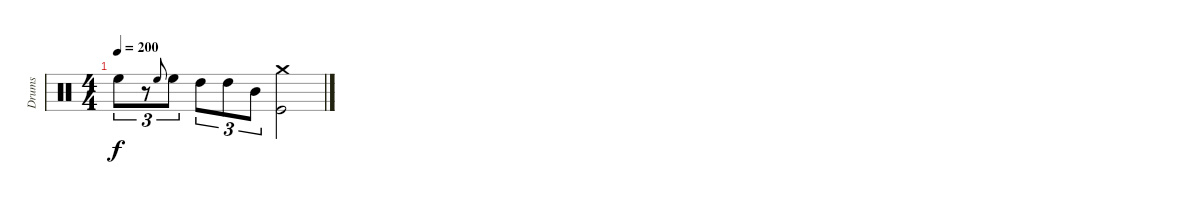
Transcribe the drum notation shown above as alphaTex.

\track ("Drums" "Drums") {instrument percussion}
\staff {score}
\articulation defaults
\ts (4 4)
\tempo 200
\clef neutral
\ks c "High Floor Tom (hit)".8{tu (3 2) dy f}
r.8{tu (3 2)} "High Floor Tom (hit)".8{gr onbeat} "High Floor Tom (hit)".8{tu (3 2)} "High Tom (hit)".8{tu (3 2)} "High Tom (hit)".8{tu (3 2)} "Mid Tom (hit)".8{tu (3 2)} ("Crash medium (hit)" "Kick (hit)").2
